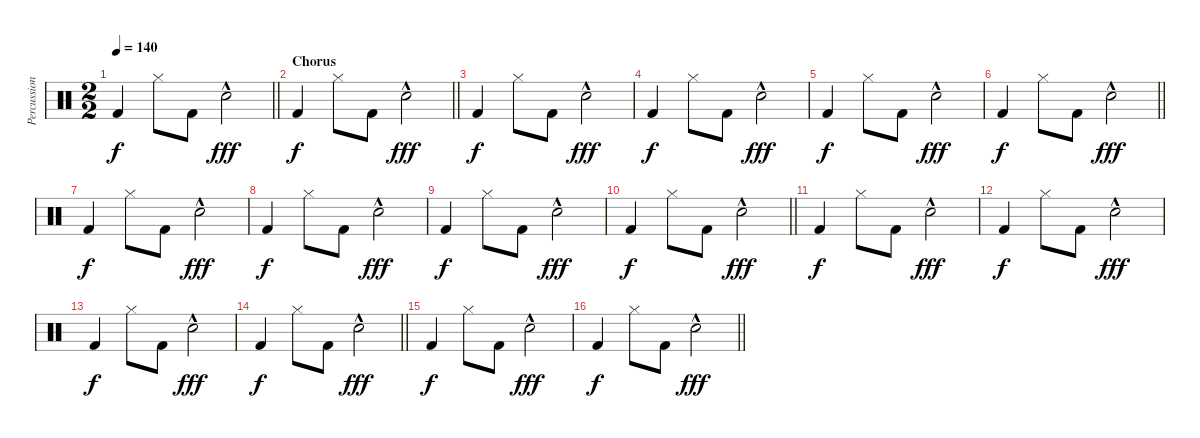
\track ("Percussion" "Percussion") {instrument percussion}
\staff {score}
\articulation defaults
\ts (2 2)
\tempo 140
\clef neutral
\barLineRight lightlight
\ks c "Kick (hit) 2".4{dy f} "Hi-Hat (closed)".8 "Kick (hit) 2".8 "Hand Clap (hit)"{hac}.2{dy fff}
|
\section ("" "Chorus")
\barLineRight lightlight "Kick (hit) 2".4{dy f} "Hi-Hat (closed)".8 "Kick (hit) 2".8 "Hand Clap (hit)"{hac}.2{dy fff}
|
"Kick (hit) 2".4{dy f} "Hi-Hat (closed)".8 "Kick (hit) 2".8 "Hand Clap (hit)"{hac}.2{dy fff} |
"Kick (hit) 2".4{dy f} "Hi-Hat (closed)".8 "Kick (hit) 2".8 "Hand Clap (hit)"{hac}.2{dy fff} |
"Kick (hit) 2".4{dy f} "Hi-Hat (closed)".8 "Kick (hit) 2".8 "Hand Clap (hit)"{hac}.2{dy fff} |
\barLineRight lightlight "Kick (hit) 2".4{dy f} "Hi-Hat (closed)".8 "Kick (hit) 2".8 "Hand Clap (hit)"{hac}.2{dy fff}
|
"Kick (hit) 2".4{dy f} "Hi-Hat (closed)".8 "Kick (hit) 2".8 "Hand Clap (hit)"{hac}.2{dy fff} |
"Kick (hit) 2".4{dy f} "Hi-Hat (closed)".8 "Kick (hit) 2".8 "Hand Clap (hit)"{hac}.2{dy fff} |
"Kick (hit) 2".4{dy f} "Hi-Hat (closed)".8 "Kick (hit) 2".8 "Hand Clap (hit)"{hac}.2{dy fff} |
\barLineRight lightlight "Kick (hit) 2".4{dy f} "Hi-Hat (closed)".8 "Kick (hit) 2".8 "Hand Clap (hit)"{hac}.2{dy fff}
|
"Kick (hit) 2".4{dy f} "Hi-Hat (closed)".8 "Kick (hit) 2".8 "Hand Clap (hit)"{hac}.2{dy fff} |
"Kick (hit) 2".4{dy f} "Hi-Hat (closed)".8 "Kick (hit) 2".8 "Hand Clap (hit)"{hac}.2{dy fff} |
"Kick (hit) 2".4{dy f} "Hi-Hat (closed)".8 "Kick (hit) 2".8 "Hand Clap (hit)"{hac}.2{dy fff} |
\barLineRight lightlight "Kick (hit) 2".4{dy f} "Hi-Hat (closed)".8 "Kick (hit) 2".8 "Hand Clap (hit)"{hac}.2{dy fff}
|
"Kick (hit) 2".4{dy f} "Hi-Hat (closed)".8 "Kick (hit) 2".8 "Hand Clap (hit)"{hac}.2{dy fff} |
\barLineRight lightlight "Kick (hit) 2".4{dy f} "Hi-Hat (closed)".8 "Kick (hit) 2".8 "Hand Clap (hit)"{hac}.2{dy fff}
